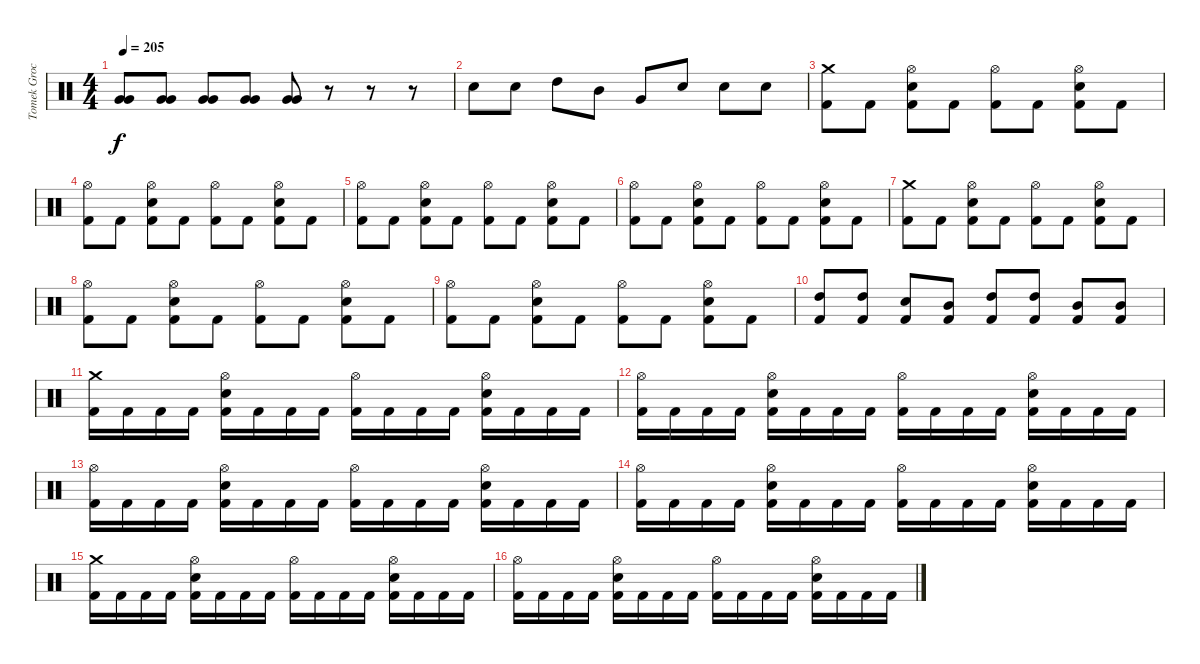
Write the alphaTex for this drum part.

\track ("Tomek Grochowski" "Tomek Groc") {instrument percussion}
\staff {score}
\articulation defaults
\ts (4 4)
\tempo 205
\clef neutral
\ks c
("Very Low Tom (hit)" "Very Low Tom (hit)").8{dy f} ("Very Low Tom (hit)" "Very Low Tom (hit)").8 ("Very Low Tom (hit)" "Very Low Tom (hit)").8 ("Very Low Tom (hit)" "Very Low Tom (hit)").8 ("Very Low Tom (hit)" "Very Low Tom (hit)").8 r.8 r.8 r.8 |
"Electric Snare (hit)".8 "Electric Snare (hit)".8 "High Tom (hit)".8 "Mid Tom (hit)".8 "Very Low Tom (hit)".8 "Electric Snare (hit)".8 "Electric Snare (hit)".8 "Electric Snare (hit)".8 |
("Crash medium (hit)" "Kick (hit) 2").8 "Kick (hit) 2".8 ("Hi-Hat (open)" "Electric Snare (hit)" "Kick (hit) 2").8 "Kick (hit) 2".8 ("Hi-Hat (open)" "Kick (hit) 2").8 "Kick (hit) 2".8 ("Hi-Hat (open)" "Electric Snare (hit)" "Kick (hit) 2").8 "Kick (hit) 2".8 |
("Hi-Hat (open)" "Kick (hit) 2").8 "Kick (hit) 2".8 ("Hi-Hat (open)" "Electric Snare (hit)" "Kick (hit) 2").8 "Kick (hit) 2".8 ("Hi-Hat (open)" "Kick (hit) 2").8 "Kick (hit) 2".8 ("Hi-Hat (open)" "Electric Snare (hit)" "Kick (hit) 2").8 "Kick (hit) 2".8 |
("Hi-Hat (open)" "Kick (hit) 2").8 "Kick (hit) 2".8 ("Hi-Hat (open)" "Electric Snare (hit)" "Kick (hit) 2").8 "Kick (hit) 2".8 ("Hi-Hat (open)" "Kick (hit) 2").8 "Kick (hit) 2".8 ("Hi-Hat (open)" "Electric Snare (hit)" "Kick (hit) 2").8 "Kick (hit) 2".8 |
("Hi-Hat (open)" "Kick (hit) 2").8 "Kick (hit) 2".8 ("Hi-Hat (open)" "Electric Snare (hit)" "Kick (hit) 2").8 "Kick (hit) 2".8 ("Hi-Hat (open)" "Kick (hit) 2").8 "Kick (hit) 2".8 ("Hi-Hat (open)" "Electric Snare (hit)" "Kick (hit) 2").8 "Kick (hit) 2".8 |
("Crash medium (hit)" "Kick (hit) 2").8 "Kick (hit) 2".8 ("Hi-Hat (open)" "Electric Snare (hit)" "Kick (hit) 2").8 "Kick (hit) 2".8 ("Hi-Hat (open)" "Kick (hit) 2").8 "Kick (hit) 2".8 ("Hi-Hat (open)" "Electric Snare (hit)" "Kick (hit) 2").8 "Kick (hit) 2".8 |
("Hi-Hat (open)" "Kick (hit) 2").8 "Kick (hit) 2".8 ("Hi-Hat (open)" "Electric Snare (hit)" "Kick (hit) 2").8 "Kick (hit) 2".8 ("Hi-Hat (open)" "Kick (hit) 2").8 "Kick (hit) 2".8 ("Hi-Hat (open)" "Electric Snare (hit)" "Kick (hit) 2").8 "Kick (hit) 2".8 |
("Hi-Hat (open)" "Kick (hit) 2").8 "Kick (hit) 2".8 ("Hi-Hat (open)" "Electric Snare (hit)" "Kick (hit) 2").8 "Kick (hit) 2".8 ("Hi-Hat (open)" "Kick (hit) 2").8 "Kick (hit) 2".8 ("Hi-Hat (open)" "Electric Snare (hit)" "Kick (hit) 2").8 "Kick (hit) 2".8 |
("High Tom (hit)" "Kick (hit) 2").8 ("High Tom (hit)" "Kick (hit) 2").8 ("Electric Snare (hit)" "Kick (hit) 2").8 ("Mid Tom (hit)" "Kick (hit) 2").8 ("High Tom (hit)" "Kick (hit) 2").8 ("High Tom (hit)" "Kick (hit) 2").8 ("Mid Tom (hit)" "Kick (hit) 2").8 ("Mid Tom (hit)" "Kick (hit) 2").8 |
("Crash medium (hit)" "Kick (hit) 2").16 "Kick (hit) 2".16 "Kick (hit) 2".16 "Kick (hit) 2".16 ("Hi-Hat (open)" "Electric Snare (hit)" "Kick (hit) 2").16 "Kick (hit) 2".16 "Kick (hit) 2".16 "Kick (hit) 2".16 ("Hi-Hat (open)" "Kick (hit) 2").16 "Kick (hit) 2".16 "Kick (hit) 2".16 "Kick (hit) 2".16 ("Hi-Hat (open)" "Electric Snare (hit)" "Kick (hit) 2").16 "Kick (hit) 2".16 "Kick (hit) 2".16 "Kick (hit) 2".16 |
("Hi-Hat (open)" "Kick (hit) 2").16 "Kick (hit) 2".16 "Kick (hit) 2".16 "Kick (hit) 2".16 ("Hi-Hat (open)" "Electric Snare (hit)" "Kick (hit) 2").16 "Kick (hit) 2".16 "Kick (hit) 2".16 "Kick (hit) 2".16 ("Hi-Hat (open)" "Kick (hit) 2").16 "Kick (hit) 2".16 "Kick (hit) 2".16 "Kick (hit) 2".16 ("Hi-Hat (open)" "Electric Snare (hit)" "Kick (hit) 2").16 "Kick (hit) 2".16 "Kick (hit) 2".16 "Kick (hit) 2".16 |
("Hi-Hat (open)" "Kick (hit) 2").16 "Kick (hit) 2".16 "Kick (hit) 2".16 "Kick (hit) 2".16 ("Hi-Hat (open)" "Electric Snare (hit)" "Kick (hit) 2").16 "Kick (hit) 2".16 "Kick (hit) 2".16 "Kick (hit) 2".16 ("Hi-Hat (open)" "Kick (hit) 2").16 "Kick (hit) 2".16 "Kick (hit) 2".16 "Kick (hit) 2".16 ("Hi-Hat (open)" "Electric Snare (hit)" "Kick (hit) 2").16 "Kick (hit) 2".16 "Kick (hit) 2".16 "Kick (hit) 2".16 |
("Hi-Hat (open)" "Kick (hit) 2").16 "Kick (hit) 2".16 "Kick (hit) 2".16 "Kick (hit) 2".16 ("Hi-Hat (open)" "Electric Snare (hit)" "Kick (hit) 2").16 "Kick (hit) 2".16 "Kick (hit) 2".16 "Kick (hit) 2".16 ("Hi-Hat (open)" "Kick (hit) 2").16 "Kick (hit) 2".16 "Kick (hit) 2".16 "Kick (hit) 2".16 ("Hi-Hat (open)" "Electric Snare (hit)" "Kick (hit) 2").16 "Kick (hit) 2".16 "Kick (hit) 2".16 "Kick (hit) 2".16 |
("Crash medium (hit)" "Kick (hit) 2").16 "Kick (hit) 2".16 "Kick (hit) 2".16 "Kick (hit) 2".16 ("Hi-Hat (open)" "Electric Snare (hit)" "Kick (hit) 2").16 "Kick (hit) 2".16 "Kick (hit) 2".16 "Kick (hit) 2".16 ("Hi-Hat (open)" "Kick (hit) 2").16 "Kick (hit) 2".16 "Kick (hit) 2".16 "Kick (hit) 2".16 ("Hi-Hat (open)" "Electric Snare (hit)" "Kick (hit) 2").16 "Kick (hit) 2".16 "Kick (hit) 2".16 "Kick (hit) 2".16 |
("Hi-Hat (open)" "Kick (hit) 2").16 "Kick (hit) 2".16 "Kick (hit) 2".16 "Kick (hit) 2".16 ("Hi-Hat (open)" "Electric Snare (hit)" "Kick (hit) 2").16 "Kick (hit) 2".16 "Kick (hit) 2".16 "Kick (hit) 2".16 ("Hi-Hat (open)" "Kick (hit) 2").16 "Kick (hit) 2".16 "Kick (hit) 2".16 "Kick (hit) 2".16 ("Hi-Hat (open)" "Electric Snare (hit)" "Kick (hit) 2").16 "Kick (hit) 2".16 "Kick (hit) 2".16 "Kick (hit) 2".16
